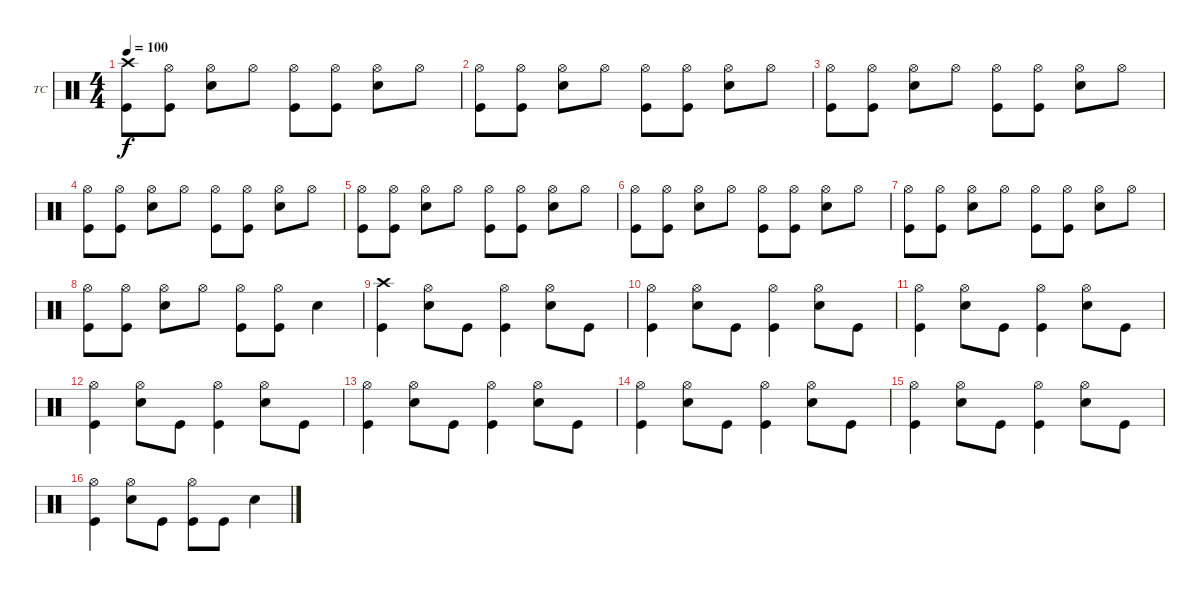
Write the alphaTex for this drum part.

\defaultSystemsLayout 4
\bracketExtendMode groupsimilarinstruments
\firstSystemTrackNameOrientation horizontal
\otherSystemsTrackNameOrientation horizontal
\track ("Drums - Tre Cool" "TC") {instrument percussion}
\staff {score}
\articulation defaults
\ts (4 4)
\tempo 100
\clef neutral
\scale
0.472222
\ks c
("Crash high (hit)" "Kick (hit)").8{dy f} ("Hi-Hat (open)" "Kick (hit)").8 ("Hi-Hat (open)" "Snare (hit) 2").8 "Hi-Hat (open)".8 ("Hi-Hat (open)" "Kick (hit)").8 ("Hi-Hat (open)" "Kick (hit)").8 ("Hi-Hat (open)" "Snare (hit) 2").8 "Hi-Hat (open)".8 |
\scale
0.263889 ("Hi-Hat (open)" "Kick (hit)").8 ("Hi-Hat (open)" "Kick (hit)").8 ("Hi-Hat (open)" "Snare (hit) 2").8 "Hi-Hat (open)".8 ("Hi-Hat (open)" "Kick (hit)").8 ("Hi-Hat (open)" "Kick (hit)").8 ("Hi-Hat (open)" "Snare (hit) 2").8 "Hi-Hat (open)".8 |
\scale
0.263889 ("Hi-Hat (open)" "Kick (hit)").8 ("Hi-Hat (open)" "Kick (hit)").8 ("Hi-Hat (open)" "Snare (hit) 2").8 "Hi-Hat (open)".8 ("Hi-Hat (open)" "Kick (hit)").8 ("Hi-Hat (open)" "Kick (hit)").8 ("Hi-Hat (open)" "Snare (hit) 2").8 "Hi-Hat (open)".8 |
\scale
0.333333 ("Hi-Hat (open)" "Kick (hit)").8 ("Hi-Hat (open)" "Kick (hit)").8 ("Hi-Hat (open)" "Snare (hit) 2").8 "Hi-Hat (open)".8 ("Hi-Hat (open)" "Kick (hit)").8 ("Hi-Hat (open)" "Kick (hit)").8 ("Hi-Hat (open)" "Snare (hit) 2").8 "Hi-Hat (open)".8 |
\scale
0.333333 ("Hi-Hat (open)" "Kick (hit)").8 ("Hi-Hat (open)" "Kick (hit)").8 ("Hi-Hat (open)" "Snare (hit) 2").8 "Hi-Hat (open)".8 ("Hi-Hat (open)" "Kick (hit)").8 ("Hi-Hat (open)" "Kick (hit)").8 ("Hi-Hat (open)" "Snare (hit) 2").8 "Hi-Hat (open)".8 |
\scale
0.333333 ("Hi-Hat (open)" "Kick (hit)").8 ("Hi-Hat (open)" "Kick (hit)").8 ("Hi-Hat (open)" "Snare (hit) 2").8 "Hi-Hat (open)".8 ("Hi-Hat (open)" "Kick (hit)").8 ("Hi-Hat (open)" "Kick (hit)").8 ("Hi-Hat (open)" "Snare (hit) 2").8 "Hi-Hat (open)".8 |
("Hi-Hat (open)" "Kick (hit)").8 ("Hi-Hat (open)" "Kick (hit)").8 ("Hi-Hat (open)" "Snare (hit) 2").8 "Hi-Hat (open)".8 ("Hi-Hat (open)" "Kick (hit)").8 ("Hi-Hat (open)" "Kick (hit)").8 ("Hi-Hat (open)" "Snare (hit) 2").8 "Hi-Hat (open)".8 |
("Hi-Hat (open)" "Kick (hit)").8 ("Hi-Hat (open)" "Kick (hit)").8 ("Hi-Hat (open)" "Snare (hit) 2").8 "Hi-Hat (open)".8 ("Hi-Hat (open)" "Kick (hit)").8 ("Hi-Hat (open)" "Kick (hit)").8 "Snare (hit) 2".4 |
("Crash high (hit)" "Kick (hit)").4 ("Hi-Hat (open)" "Snare (hit) 2").8 "Kick (hit)".8 ("Hi-Hat (open)" "Kick (hit)").4 ("Hi-Hat (open)" "Snare (hit) 2").8 "Kick (hit)".8 |
("Hi-Hat (open)" "Kick (hit)").4 ("Hi-Hat (open)" "Snare (hit) 2").8 "Kick (hit)".8 ("Hi-Hat (open)" "Kick (hit)").4 ("Hi-Hat (open)" "Snare (hit) 2").8 "Kick (hit)".8 |
("Hi-Hat (open)" "Kick (hit)").4 ("Hi-Hat (open)" "Snare (hit) 2").8 "Kick (hit)".8 ("Hi-Hat (open)" "Kick (hit)").4 ("Hi-Hat (open)" "Snare (hit) 2").8 "Kick (hit)".8 |
("Hi-Hat (open)" "Kick (hit)").4 ("Hi-Hat (open)" "Snare (hit) 2").8 "Kick (hit)".8 ("Hi-Hat (open)" "Kick (hit)").4 ("Hi-Hat (open)" "Snare (hit) 2").8 "Kick (hit)".8 |
("Hi-Hat (open)" "Kick (hit)").4 ("Hi-Hat (open)" "Snare (hit) 2").8 "Kick (hit)".8 ("Hi-Hat (open)" "Kick (hit)").4 ("Hi-Hat (open)" "Snare (hit) 2").8 "Kick (hit)".8 |
("Hi-Hat (open)" "Kick (hit)").4 ("Hi-Hat (open)" "Snare (hit) 2").8 "Kick (hit)".8 ("Hi-Hat (open)" "Kick (hit)").4 ("Hi-Hat (open)" "Snare (hit) 2").8 "Kick (hit)".8 |
("Hi-Hat (open)" "Kick (hit)").4 ("Hi-Hat (open)" "Snare (hit) 2").8 "Kick (hit)".8 ("Hi-Hat (open)" "Kick (hit)").4 ("Hi-Hat (open)" "Snare (hit) 2").8 "Kick (hit)".8 |
("Hi-Hat (open)" "Kick (hit)").4 ("Hi-Hat (open)" "Snare (hit) 2").8 "Kick (hit)".8 ("Hi-Hat (open)" "Kick (hit)").8 "Kick (hit)".8 "Snare (hit) 2".4
